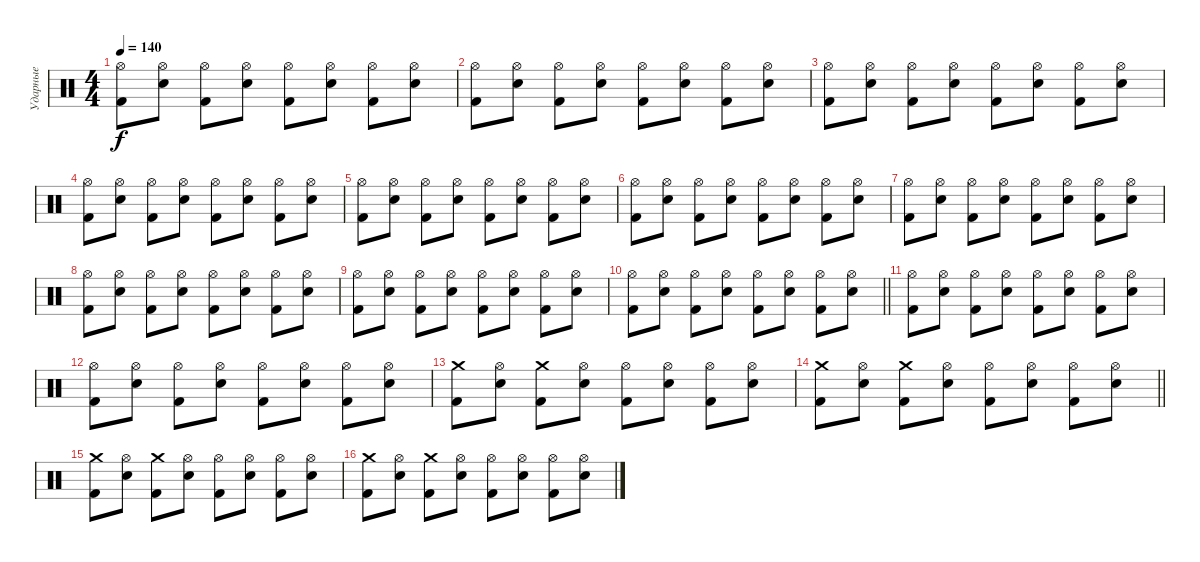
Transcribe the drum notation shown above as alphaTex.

\track ("Ударные" "Ударные") {instrument percussion}
\staff {score}
\articulation defaults
\ts (4 4)
\tempo 140
\clef neutral
\ks c
("Hi-Hat (open)" "Kick (hit) 2").8{dy f} ("Hi-Hat (open)" "Electric Snare (hit)").8 ("Hi-Hat (open)" "Kick (hit) 2").8 ("Hi-Hat (open)" "Electric Snare (hit)").8 ("Hi-Hat (open)" "Kick (hit) 2").8 ("Hi-Hat (open)" "Electric Snare (hit)").8 ("Hi-Hat (open)" "Kick (hit) 2").8 ("Hi-Hat (open)" "Electric Snare (hit)").8 |
("Hi-Hat (open)" "Kick (hit) 2").8 ("Hi-Hat (open)" "Electric Snare (hit)").8 ("Hi-Hat (open)" "Kick (hit) 2").8 ("Hi-Hat (open)" "Electric Snare (hit)").8 ("Hi-Hat (open)" "Kick (hit) 2").8 ("Hi-Hat (open)" "Electric Snare (hit)").8 ("Hi-Hat (open)" "Kick (hit) 2").8 ("Hi-Hat (open)" "Electric Snare (hit)").8 |
("Hi-Hat (open)" "Kick (hit) 2").8 ("Hi-Hat (open)" "Electric Snare (hit)").8 ("Hi-Hat (open)" "Kick (hit) 2").8 ("Hi-Hat (open)" "Electric Snare (hit)").8 ("Hi-Hat (open)" "Kick (hit) 2").8 ("Hi-Hat (open)" "Electric Snare (hit)").8 ("Hi-Hat (open)" "Kick (hit) 2").8 ("Hi-Hat (open)" "Electric Snare (hit)").8 |
("Hi-Hat (open)" "Kick (hit) 2").8 ("Hi-Hat (open)" "Electric Snare (hit)").8 ("Hi-Hat (open)" "Kick (hit) 2").8 ("Hi-Hat (open)" "Electric Snare (hit)").8 ("Hi-Hat (open)" "Kick (hit) 2").8 ("Hi-Hat (open)" "Electric Snare (hit)").8 ("Hi-Hat (open)" "Kick (hit) 2").8 ("Hi-Hat (open)" "Electric Snare (hit)").8 |
("Hi-Hat (open)" "Kick (hit) 2").8 ("Hi-Hat (open)" "Electric Snare (hit)").8 ("Hi-Hat (open)" "Kick (hit) 2").8 ("Hi-Hat (open)" "Electric Snare (hit)").8 ("Hi-Hat (open)" "Kick (hit) 2").8 ("Hi-Hat (open)" "Electric Snare (hit)").8 ("Hi-Hat (open)" "Kick (hit) 2").8 ("Hi-Hat (open)" "Electric Snare (hit)").8 |
("Hi-Hat (open)" "Kick (hit) 2").8 ("Hi-Hat (open)" "Electric Snare (hit)").8 ("Hi-Hat (open)" "Kick (hit) 2").8 ("Hi-Hat (open)" "Electric Snare (hit)").8 ("Hi-Hat (open)" "Kick (hit) 2").8 ("Hi-Hat (open)" "Electric Snare (hit)").8 ("Hi-Hat (open)" "Kick (hit) 2").8 ("Hi-Hat (open)" "Electric Snare (hit)").8 |
("Hi-Hat (open)" "Kick (hit) 2").8 ("Hi-Hat (open)" "Electric Snare (hit)").8 ("Hi-Hat (open)" "Kick (hit) 2").8 ("Hi-Hat (open)" "Electric Snare (hit)").8 ("Hi-Hat (open)" "Kick (hit) 2").8 ("Hi-Hat (open)" "Electric Snare (hit)").8 ("Hi-Hat (open)" "Kick (hit) 2").8 ("Hi-Hat (open)" "Electric Snare (hit)").8 |
("Hi-Hat (open)" "Kick (hit) 2").8 ("Hi-Hat (open)" "Electric Snare (hit)").8 ("Hi-Hat (open)" "Kick (hit) 2").8 ("Hi-Hat (open)" "Electric Snare (hit)").8 ("Hi-Hat (open)" "Kick (hit) 2").8 ("Hi-Hat (open)" "Electric Snare (hit)").8 ("Hi-Hat (open)" "Kick (hit) 2").8 ("Hi-Hat (open)" "Electric Snare (hit)").8 |
("Hi-Hat (open)" "Kick (hit) 2").8 ("Hi-Hat (open)" "Electric Snare (hit)").8 ("Hi-Hat (open)" "Kick (hit) 2").8 ("Hi-Hat (open)" "Electric Snare (hit)").8 ("Hi-Hat (open)" "Kick (hit) 2").8 ("Hi-Hat (open)" "Electric Snare (hit)").8 ("Hi-Hat (open)" "Kick (hit) 2").8 ("Hi-Hat (open)" "Electric Snare (hit)").8 |
\barLineRight lightlight
("Hi-Hat (open)" "Kick (hit) 2").8 ("Hi-Hat (open)" "Electric Snare (hit)").8 ("Hi-Hat (open)" "Kick (hit) 2").8 ("Hi-Hat (open)" "Electric Snare (hit)").8 ("Hi-Hat (open)" "Kick (hit) 2").8 ("Hi-Hat (open)" "Electric Snare (hit)").8 ("Hi-Hat (open)" "Kick (hit) 2").8 ("Hi-Hat (open)" "Electric Snare (hit)").8 |
("Hi-Hat (open)" "Kick (hit) 2").8 ("Hi-Hat (open)" "Electric Snare (hit)").8 ("Hi-Hat (open)" "Kick (hit) 2").8 ("Hi-Hat (open)" "Electric Snare (hit)").8 ("Hi-Hat (open)" "Kick (hit) 2").8 ("Hi-Hat (open)" "Electric Snare (hit)").8 ("Hi-Hat (open)" "Kick (hit) 2").8 ("Hi-Hat (open)" "Electric Snare (hit)").8 |
("Hi-Hat (open)" "Kick (hit) 2").8 ("Hi-Hat (open)" "Electric Snare (hit)").8 ("Hi-Hat (open)" "Kick (hit) 2").8 ("Hi-Hat (open)" "Electric Snare (hit)").8 ("Hi-Hat (open)" "Kick (hit) 2").8 ("Hi-Hat (open)" "Electric Snare (hit)").8 ("Hi-Hat (open)" "Kick (hit) 2").8 ("Hi-Hat (open)" "Electric Snare (hit)").8 |
("Crash medium (hit)" "Kick (hit) 2").8 ("Hi-Hat (open)" "Electric Snare (hit)").8 ("Crash medium (hit)" "Kick (hit) 2").8 ("Hi-Hat (open)" "Electric Snare (hit)").8 ("Hi-Hat (open)" "Kick (hit) 2").8 ("Hi-Hat (open)" "Electric Snare (hit)").8 ("Hi-Hat (open)" "Kick (hit) 2").8 ("Hi-Hat (open)" "Electric Snare (hit)").8 |
\barLineRight lightlight
("Crash medium (hit)" "Kick (hit) 2").8 ("Hi-Hat (open)" "Electric Snare (hit)").8 ("Crash medium (hit)" "Kick (hit) 2").8 ("Hi-Hat (open)" "Electric Snare (hit)").8 ("Hi-Hat (open)" "Kick (hit) 2").8 ("Hi-Hat (open)" "Electric Snare (hit)").8 ("Hi-Hat (open)" "Kick (hit) 2").8 ("Hi-Hat (open)" "Electric Snare (hit)").8 |
("Crash medium (hit)" "Kick (hit) 2").8 ("Hi-Hat (open)" "Electric Snare (hit)").8 ("Crash medium (hit)" "Kick (hit) 2").8 ("Hi-Hat (open)" "Electric Snare (hit)").8 ("Hi-Hat (open)" "Kick (hit) 2").8 ("Hi-Hat (open)" "Electric Snare (hit)").8 ("Hi-Hat (open)" "Kick (hit) 2").8 ("Hi-Hat (open)" "Electric Snare (hit)").8 |
("Crash medium (hit)" "Kick (hit) 2").8 ("Hi-Hat (open)" "Electric Snare (hit)").8 ("Crash medium (hit)" "Kick (hit) 2").8 ("Hi-Hat (open)" "Electric Snare (hit)").8 ("Hi-Hat (open)" "Kick (hit) 2").8 ("Hi-Hat (open)" "Electric Snare (hit)").8 ("Hi-Hat (open)" "Kick (hit) 2").8 ("Hi-Hat (open)" "Electric Snare (hit)").8
